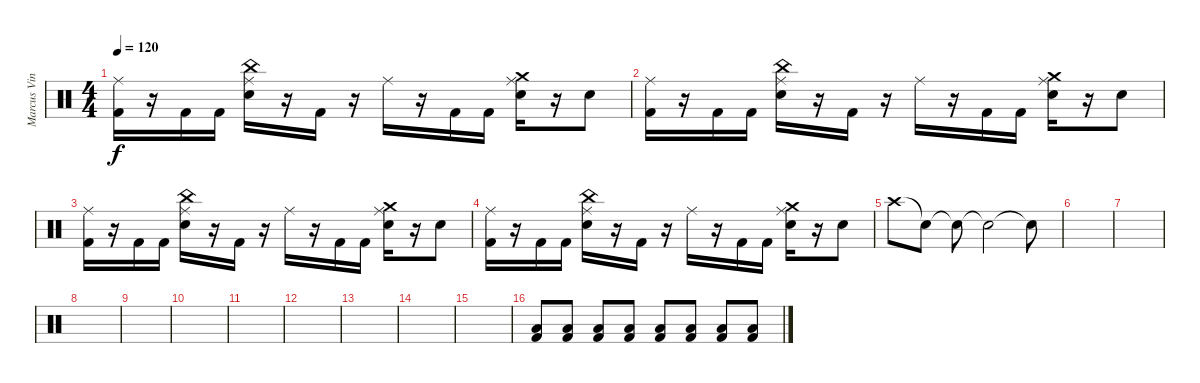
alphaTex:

\track ("Marcus Vinicius" "Marcus Vin") {instrument percussion}
\staff {score}
\articulation defaults
\ts (4 4)
\tempo 120
\clef neutral
\ks c
("Kick (hit) 2" "Ride (middle)").16{dy f} r.16 "Kick (hit) 2".16 "Kick (hit) 2".16 ("Electric Snare (hit)" "Ride (middle)" "China (hit)").16 r.16 "Kick (hit) 2".16 r.16 "Ride (middle)".16 r.16 "Kick (hit) 2".16 "Kick (hit) 2".16 ("Electric Snare (hit)" "Ride (middle)" "Crash medium (hit)").16 r.16 "Electric Snare (hit)".8 |
("Kick (hit) 2" "Ride (middle)").16 r.16 "Kick (hit) 2".16 "Kick (hit) 2".16 ("Electric Snare (hit)" "Ride (middle)" "China (hit)").16 r.16 "Kick (hit) 2".16 r.16 "Ride (middle)".16 r.16 "Kick (hit) 2".16 "Kick (hit) 2".16 ("Electric Snare (hit)" "Ride (middle)" "Crash medium (hit)").16 r.16 "Electric Snare (hit)".8 |
("Kick (hit) 2" "Ride (middle)").16 r.16 "Kick (hit) 2".16 "Kick (hit) 2".16 ("Electric Snare (hit)" "Ride (middle)" "China (hit)").16 r.16 "Kick (hit) 2".16 r.16 "Ride (middle)".16 r.16 "Kick (hit) 2".16 "Kick (hit) 2".16 ("Electric Snare (hit)" "Ride (middle)" "Crash medium (hit)").16 r.16 "Electric Snare (hit)".8 |
("Kick (hit) 2" "Ride (middle)").16 r.16 "Kick (hit) 2".16 "Kick (hit) 2".16 ("Electric Snare (hit)" "Ride (middle)" "China (hit)").16 r.16 "Kick (hit) 2".16 r.16 "Ride (middle)".16 r.16 "Kick (hit) 2".16 "Kick (hit) 2".16 ("Electric Snare (hit)" "Ride (middle)" "Crash medium (hit)").16 r.16 "Electric Snare (hit)".8 |
"Crash high (hit)".8 "Snare (hit)"{t}.8 "Snare (hit)"{t}.8 "Snare (hit)"{t}.2 "Snare (hit)"{t}.8 |
|
|
|
|
|
|
|
|
|
|
("Low Tom (hit)" "Kick (hit) 2").8 ("Low Tom (hit)" "Kick (hit) 2").8 ("Low Tom (hit)" "Kick (hit) 2").8 ("Low Tom (hit)" "Kick (hit) 2").8 ("Low Tom (hit)" "Kick (hit) 2").8 ("Low Tom (hit)" "Kick (hit) 2").8 ("Low Tom (hit)" "Kick (hit) 2").8 ("Low Tom (hit)" "Kick (hit) 2").8
